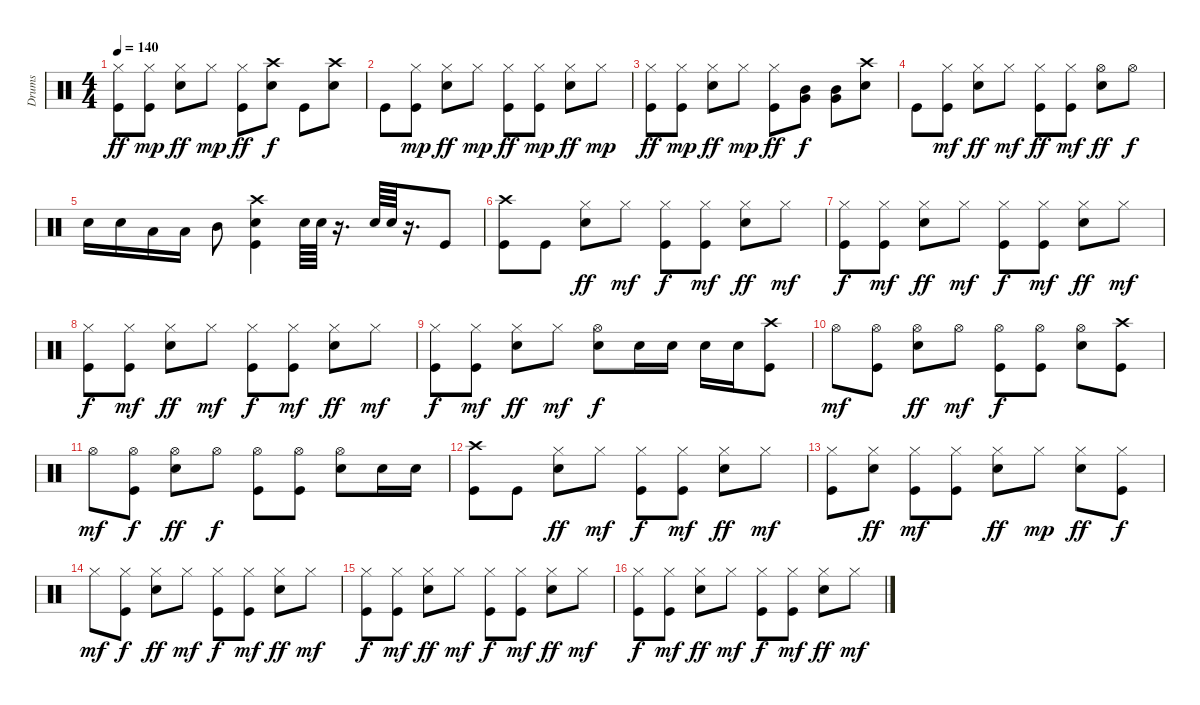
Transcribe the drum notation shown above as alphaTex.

\track ("Drums" "Drums") {instrument percussion}
\staff {score}
\articulation defaults
\ts (4 4)
\tempo 140
\clef neutral
\ks c
("Hi-Hat (closed)" "Kick (hit)").8{dy ff} ("Hi-Hat (closed)" "Kick (hit)").8{dy mp} ("Hi-Hat (closed)" "Snare (hit) 2").8{dy ff} "Hi-Hat (closed)".8{dy mp} ("Hi-Hat (closed)" "Kick (hit)").8{dy ff} ("Crash high (hit)" "Snare (hit) 2").8{dy f} "Kick (hit)".8 ("Crash high (hit)" "Snare (hit) 2").8 |
"Kick (hit)".8 ("Hi-Hat (closed)" "Kick (hit)").8{dy mp} ("Hi-Hat (closed)" "Snare (hit) 2").8{dy ff} "Hi-Hat (closed)".8{dy mp} ("Hi-Hat (closed)" "Kick (hit)").8{dy ff} ("Hi-Hat (closed)" "Kick (hit)").8{dy mp} ("Hi-Hat (closed)" "Snare (hit) 2").8{dy ff} "Hi-Hat (closed)".8{dy mp} |
("Hi-Hat (closed)" "Kick (hit)").8{dy ff} ("Hi-Hat (closed)" "Kick (hit)").8{dy mp} ("Hi-Hat (closed)" "Snare (hit) 2").8{dy ff} "Hi-Hat (closed)".8{dy mp} ("Hi-Hat (closed)" "Kick (hit)").8{dy ff} ("Mid Tom (hit)" "Very Low Tom (hit)").8{dy f} ("Mid Tom (hit)" "Very Low Tom (hit)").8 ("Crash high (hit)" "Snare (hit) 2").8 |
"Kick (hit)".8 ("Hi-Hat (closed)" "Kick (hit)").8{dy mf} ("Hi-Hat (closed)" "Snare (hit) 2").8{dy ff} "Hi-Hat (closed)".8{dy mf} ("Hi-Hat (closed)" "Kick (hit)").8{dy ff} ("Hi-Hat (closed)" "Kick (hit)").8{dy mf} ("Hi-Hat (open)" "Snare (hit) 2").8{dy ff} "Hi-Hat (open)".8{dy f} |
"Snare (hit) 2".16 "Snare (hit) 2".16 "Low Tom (hit)".16 "Low Tom (hit)".16 "Mid Tom (hit)".8 ("Crash high (hit)" "Snare (hit) 2" "Kick (hit)").4 "Snare (hit) 2".64 "Snare (hit) 2".64 r.16{d} "Snare (hit) 2".64 "Snare (hit) 2".64 r.16{d} "Kick (hit)".8 |
("Crash high (hit)" "Kick (hit)").8 "Kick (hit)".8 ("Hi-Hat (closed)" "Snare (hit) 2").8{dy ff} "Hi-Hat (closed)".8{dy mf} ("Hi-Hat (closed)" "Kick (hit)").8{dy f} ("Hi-Hat (closed)" "Kick (hit)").8{dy mf} ("Hi-Hat (closed)" "Snare (hit) 2").8{dy ff} "Hi-Hat (closed)".8{dy mf} |
("Hi-Hat (closed)" "Kick (hit)").8{dy f} ("Hi-Hat (closed)" "Kick (hit)").8{dy mf} ("Hi-Hat (closed)" "Snare (hit) 2").8{dy ff} "Hi-Hat (closed)".8{dy mf} ("Hi-Hat (closed)" "Kick (hit)").8{dy f} ("Hi-Hat (closed)" "Kick (hit)").8{dy mf} ("Hi-Hat (closed)" "Snare (hit) 2").8{dy ff} "Hi-Hat (closed)".8{dy mf} |
("Hi-Hat (closed)" "Kick (hit)").8{dy f} ("Hi-Hat (closed)" "Kick (hit)").8{dy mf} ("Hi-Hat (closed)" "Snare (hit) 2").8{dy ff} "Hi-Hat (closed)".8{dy mf} ("Hi-Hat (closed)" "Kick (hit)").8{dy f} ("Hi-Hat (closed)" "Kick (hit)").8{dy mf} ("Hi-Hat (closed)" "Snare (hit) 2").8{dy ff} "Hi-Hat (closed)".8{dy mf} |
("Hi-Hat (closed)" "Kick (hit)").8{dy f} ("Hi-Hat (closed)" "Kick (hit)").8{dy mf} ("Hi-Hat (closed)" "Snare (hit) 2").8{dy ff} "Hi-Hat (closed)".8{dy mf} ("Hi-Hat (open)" "Snare (hit) 2").8{dy f} "Snare (hit) 2".16 "Snare (hit) 2".16 "Snare (hit) 2".16 "Snare (hit) 2".16 ("Crash high (hit)" "Kick (hit)").8 |
"Hi-Hat (open)".8{dy mf} ("Hi-Hat (open)" "Kick (hit)").8 ("Hi-Hat (open)" "Snare (hit) 2").8{dy ff} "Hi-Hat (open)".8{dy mf} ("Hi-Hat (open)" "Kick (hit)").8{dy f} ("Hi-Hat (open)" "Kick (hit)").8 ("Hi-Hat (open)" "Snare (hit) 2").8 ("Crash high (hit)" "Kick (hit)").8 |
"Hi-Hat (open)".8{dy mf} ("Hi-Hat (open)" "Kick (hit)").8{dy f} ("Hi-Hat (open)" "Snare (hit) 2").8{dy ff} "Hi-Hat (open)".8{dy f} ("Hi-Hat (open)" "Kick (hit)").8 ("Hi-Hat (open)" "Kick (hit)").8 ("Hi-Hat (open)" "Snare (hit) 2").8 "Snare (hit) 2".16 "Snare (hit) 2".16 |
("Crash high (hit)" "Kick (hit)").8 "Kick (hit)".8 ("Hi-Hat (closed)" "Snare (hit) 2").8{dy ff} "Hi-Hat (closed)".8{dy mf} ("Hi-Hat (closed)" "Kick (hit)").8{dy f} ("Hi-Hat (closed)" "Kick (hit)").8{dy mf} ("Hi-Hat (closed)" "Snare (hit) 2").8{dy ff} "Hi-Hat (closed)".8{dy mf} |
("Hi-Hat (closed)" "Kick (hit)").8 ("Hi-Hat (closed)" "Snare (hit) 2").8{dy ff} ("Hi-Hat (closed)" "Kick (hit)").8{dy mf} ("Hi-Hat (closed)" "Kick (hit)").8 ("Hi-Hat (closed)" "Snare (hit) 2").8{dy ff} "Hi-Hat (closed)".8{dy mp} ("Hi-Hat (closed)" "Snare (hit) 2").8{dy ff} ("Hi-Hat (closed)" "Kick (hit)").8{dy f} |
"Hi-Hat (closed)".8{dy mf} ("Hi-Hat (closed)" "Kick (hit)").8{dy f} ("Hi-Hat (closed)" "Snare (hit) 2").8{dy ff} "Hi-Hat (closed)".8{dy mf} ("Hi-Hat (closed)" "Kick (hit)").8{dy f} ("Hi-Hat (closed)" "Kick (hit)").8{dy mf} ("Hi-Hat (closed)" "Snare (hit) 2").8{dy ff} "Hi-Hat (closed)".8{dy mf} |
("Hi-Hat (closed)" "Kick (hit)").8{dy f} ("Hi-Hat (closed)" "Kick (hit)").8{dy mf} ("Hi-Hat (closed)" "Snare (hit) 2").8{dy ff} "Hi-Hat (closed)".8{dy mf} ("Hi-Hat (closed)" "Kick (hit)").8{dy f} ("Hi-Hat (closed)" "Kick (hit)").8{dy mf} ("Hi-Hat (closed)" "Snare (hit) 2").8{dy ff} "Hi-Hat (closed)".8{dy mf} |
("Hi-Hat (closed)" "Kick (hit)").8{dy f} ("Hi-Hat (closed)" "Kick (hit)").8{dy mf} ("Hi-Hat (closed)" "Snare (hit) 2").8{dy ff} "Hi-Hat (closed)".8{dy mf} ("Hi-Hat (closed)" "Kick (hit)").8{dy f} ("Hi-Hat (closed)" "Kick (hit)").8{dy mf} ("Hi-Hat (closed)" "Snare (hit) 2").8{dy ff} "Hi-Hat (closed)".8{dy mf}
